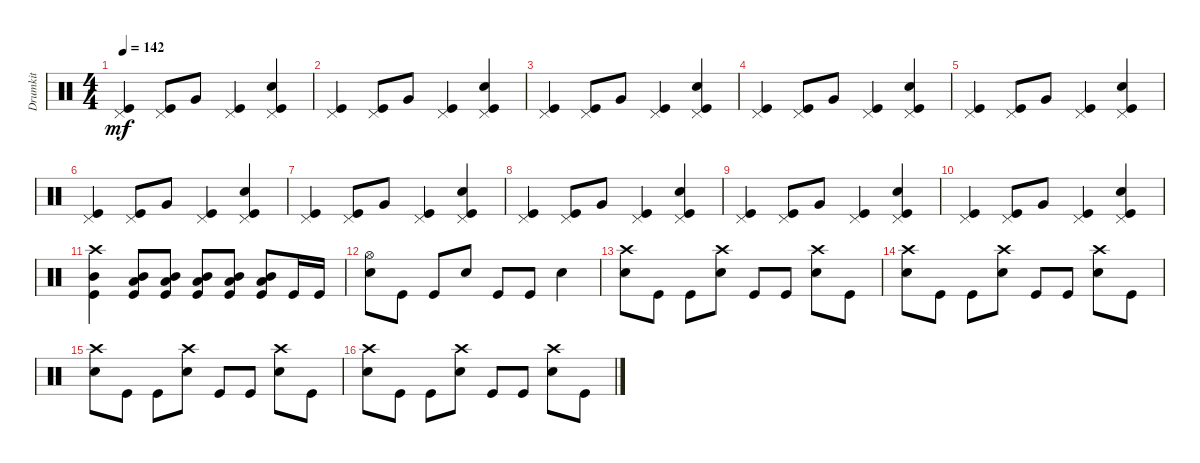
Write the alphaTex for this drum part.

\track ("Drumkit" "Drumkit") {instrument percussion}
\staff {score}
\articulation defaults
\ts (4 4)
\tempo 142
\clef neutral
\ks c
("Kick (hit)" "Pedal Hi-Hat (hit)").4{dy mf} ("Pedal Hi-Hat (hit)" "Kick (hit)").8 "Very Low Tom (hit)".8 ("Kick (hit)" "Pedal Hi-Hat (hit)").4 ("Snare (hit) 2" "Kick (hit)" "Pedal Hi-Hat (hit)").4 |
("Kick (hit)" "Pedal Hi-Hat (hit)").4 ("Pedal Hi-Hat (hit)" "Kick (hit)").8 "Very Low Tom (hit)".8 ("Kick (hit)" "Pedal Hi-Hat (hit)").4 ("Snare (hit) 2" "Kick (hit)" "Pedal Hi-Hat (hit)").4 |
("Kick (hit)" "Pedal Hi-Hat (hit)").4 ("Pedal Hi-Hat (hit)" "Kick (hit)").8 "Very Low Tom (hit)".8 ("Kick (hit)" "Pedal Hi-Hat (hit)").4 ("Snare (hit) 2" "Kick (hit)" "Pedal Hi-Hat (hit)").4 |
("Kick (hit)" "Pedal Hi-Hat (hit)").4 ("Pedal Hi-Hat (hit)" "Kick (hit)").8 "Very Low Tom (hit)".8 ("Kick (hit)" "Pedal Hi-Hat (hit)").4 ("Snare (hit) 2" "Kick (hit)" "Pedal Hi-Hat (hit)").4 |
("Kick (hit)" "Pedal Hi-Hat (hit)").4 ("Pedal Hi-Hat (hit)" "Kick (hit)").8 "Very Low Tom (hit)".8 ("Kick (hit)" "Pedal Hi-Hat (hit)").4 ("Snare (hit) 2" "Kick (hit)" "Pedal Hi-Hat (hit)").4 |
("Kick (hit)" "Pedal Hi-Hat (hit)").4 ("Pedal Hi-Hat (hit)" "Kick (hit)").8 "Very Low Tom (hit)".8 ("Kick (hit)" "Pedal Hi-Hat (hit)").4 ("Snare (hit) 2" "Kick (hit)" "Pedal Hi-Hat (hit)").4 |
("Kick (hit)" "Pedal Hi-Hat (hit)").4 ("Pedal Hi-Hat (hit)" "Kick (hit)").8 "Very Low Tom (hit)".8 ("Kick (hit)" "Pedal Hi-Hat (hit)").4 ("Snare (hit) 2" "Kick (hit)" "Pedal Hi-Hat (hit)").4 |
("Kick (hit)" "Pedal Hi-Hat (hit)").4 ("Pedal Hi-Hat (hit)" "Kick (hit)").8 "Very Low Tom (hit)".8 ("Kick (hit)" "Pedal Hi-Hat (hit)").4 ("Snare (hit) 2" "Kick (hit)" "Pedal Hi-Hat (hit)").4 |
("Kick (hit)" "Pedal Hi-Hat (hit)").4 ("Pedal Hi-Hat (hit)" "Kick (hit)").8 "Very Low Tom (hit)".8 ("Kick (hit)" "Pedal Hi-Hat (hit)").4 ("Snare (hit) 2" "Kick (hit)" "Pedal Hi-Hat (hit)").4 |
("Kick (hit)" "Pedal Hi-Hat (hit)").4 ("Pedal Hi-Hat (hit)" "Kick (hit)").8 "Very Low Tom (hit)".8 ("Kick (hit)" "Pedal Hi-Hat (hit)").4 ("Snare (hit) 2" "Kick (hit)" "Pedal Hi-Hat (hit)").4 |
("Kick (hit)" "Mid Tom (hit)" "Crash high (hit)").4 ("Low Floor Tom (hit)" "Kick (hit)" "Mid Tom (hit)").8 ("Low Floor Tom (hit)" "Kick (hit)" "Mid Tom (hit)").8 ("Low Floor Tom (hit)" "Kick (hit)" "Mid Tom (hit)").8 ("Low Floor Tom (hit)" "Kick (hit)" "Mid Tom (hit)").8 ("Low Floor Tom (hit)" "Kick (hit)" "Mid Tom (hit)").8 "Kick (hit)".16 "Kick (hit)".16 |
("Hi-Hat (open)" "Snare (hit) 2").8 "Kick (hit)".8 "Kick (hit)".8 "Snare (hit) 2".8 "Kick (hit)".8 "Kick (hit)".8 "Snare (hit) 2".4 |
("Snare (hit) 2" "Crash high (hit)").8 "Kick (hit)".8 "Kick (hit)".8 ("Snare (hit) 2" "Crash high (hit)").8 "Kick (hit)".8 "Kick (hit)".8 ("Snare (hit) 2" "Crash high (hit)").8 "Kick (hit)".8 |
("Snare (hit) 2" "Crash high (hit)").8 "Kick (hit)".8 "Kick (hit)".8 ("Snare (hit) 2" "Crash high (hit)").8 "Kick (hit)".8 "Kick (hit)".8 ("Snare (hit) 2" "Crash high (hit)").8 "Kick (hit)".8 |
("Snare (hit) 2" "Crash high (hit)").8 "Kick (hit)".8 "Kick (hit)".8 ("Snare (hit) 2" "Crash high (hit)").8 "Kick (hit)".8 "Kick (hit)".8 ("Snare (hit) 2" "Crash high (hit)").8 "Kick (hit)".8 |
("Snare (hit) 2" "Crash high (hit)").8 "Kick (hit)".8 "Kick (hit)".8 ("Snare (hit) 2" "Crash high (hit)").8 "Kick (hit)".8 "Kick (hit)".8 ("Snare (hit) 2" "Crash high (hit)").8 "Kick (hit)".8
